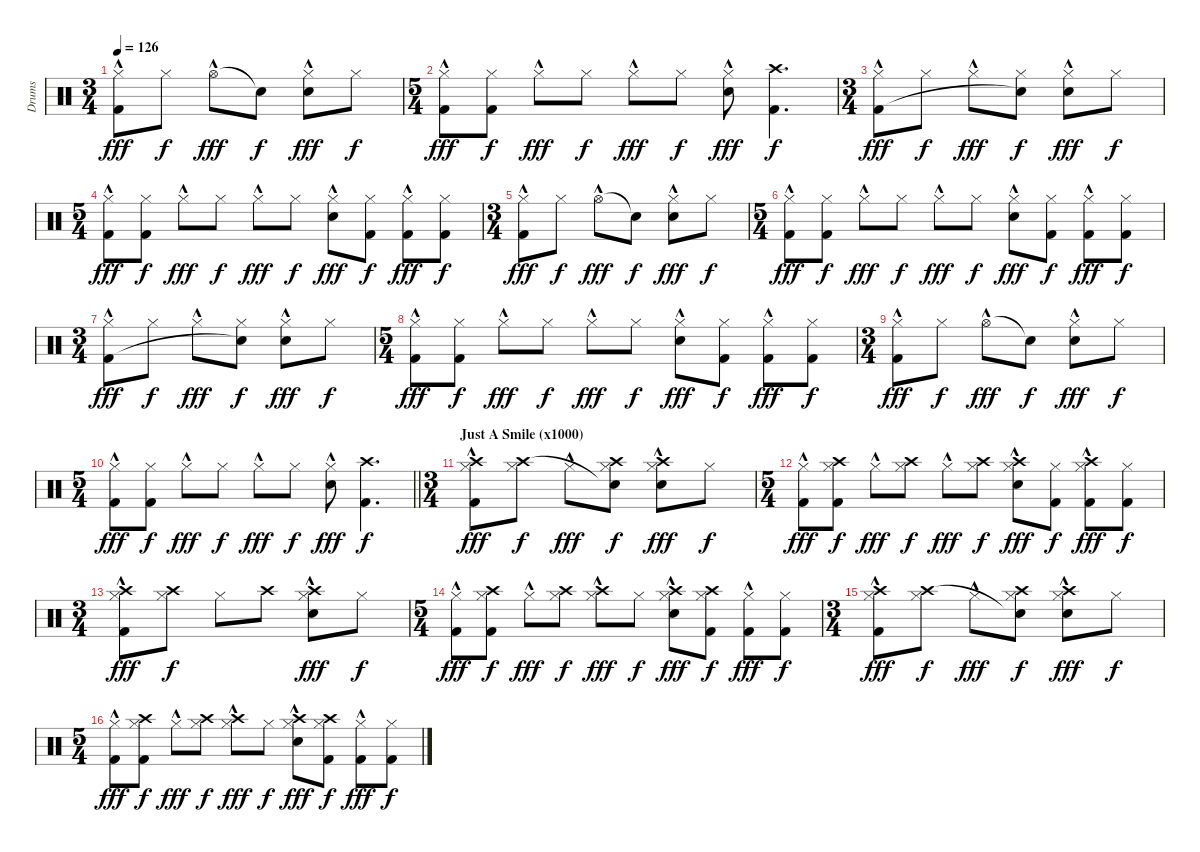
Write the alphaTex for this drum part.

\track ("Drums" "Drums") {instrument percussion}
\staff {score}
\articulation defaults
\ts (3 4)
\tempo 126
\clef neutral
\ks c
("Hi-Hat (closed)"{hac} "Kick (hit) 2").8{dy fff} "Hi-Hat (closed)".8{dy f} "Hi-Hat (open)"{hac}.8{dy fff} "Snare (hit)"{t}.8{dy f} ("Hi-Hat (closed)"{hac} "Snare (hit) 2"{hac}).8{dy fff} "Hi-Hat (closed)".8{dy f} |
\ts (5 4)
("Hi-Hat (closed)"{hac} "Kick (hit) 2").8{dy fff} ("Hi-Hat (closed)" "Kick (hit) 2").8{dy f} "Hi-Hat (closed)"{hac}.8{dy fff} "Hi-Hat (closed)".8{dy f} "Hi-Hat (closed)"{hac}.8{dy fff} "Hi-Hat (closed)".8{dy f} ("Hi-Hat (closed)"{hac} "Snare (hit) 2"{hac}).8{dy fff} ("Crash high (hit)" "Kick (hit) 2").4{d dy f} |
\ts (3 4)
("Hi-Hat (closed)"{hac} "Kick (hit) 2").8{dy fff} "Hi-Hat (closed)".8{dy f} "Hi-Hat (closed)"{hac}.8{dy fff} ("Hi-Hat (closed)" "Snare (hit)"{t}).8{dy f} ("Hi-Hat (closed)"{hac} "Snare (hit) 2"{hac}).8{dy fff} "Hi-Hat (closed)".8{dy f} |
\ts (5 4)
("Hi-Hat (closed)"{hac} "Kick (hit) 2").8{dy fff} ("Hi-Hat (closed)" "Kick (hit) 2").8{dy f} "Hi-Hat (closed)"{hac}.8{dy fff} "Hi-Hat (closed)".8{dy f} "Hi-Hat (closed)"{hac}.8{dy fff} "Hi-Hat (closed)".8{dy f} ("Hi-Hat (closed)"{hac} "Snare (hit) 2"{hac}).8{dy fff} ("Hi-Hat (closed)" "Kick (hit) 2").8{dy f} ("Hi-Hat (closed)"{hac} "Kick (hit) 2").8{dy fff} ("Hi-Hat (closed)" "Kick (hit) 2").8{dy f} |
\ts (3 4)
("Hi-Hat (closed)"{hac} "Kick (hit) 2").8{dy fff} "Hi-Hat (closed)".8{dy f} "Hi-Hat (open)"{hac}.8{dy fff} "Snare (hit)"{t}.8{dy f} ("Hi-Hat (closed)"{hac} "Snare (hit) 2"{hac}).8{dy fff} "Hi-Hat (closed)".8{dy f} |
\ts (5 4)
("Hi-Hat (closed)"{hac} "Kick (hit) 2").8{dy fff} ("Hi-Hat (closed)" "Kick (hit) 2").8{dy f} "Hi-Hat (closed)"{hac}.8{dy fff} "Hi-Hat (closed)".8{dy f} "Hi-Hat (closed)"{hac}.8{dy fff} "Hi-Hat (closed)".8{dy f} ("Hi-Hat (closed)"{hac} "Snare (hit) 2"{hac}).8{dy fff} ("Hi-Hat (closed)" "Kick (hit) 2").8{dy f} ("Hi-Hat (closed)"{hac} "Kick (hit) 2").8{dy fff} ("Hi-Hat (closed)" "Kick (hit) 2").8{dy f} |
\ts (3 4)
("Hi-Hat (closed)"{hac} "Kick (hit) 2").8{dy fff} "Hi-Hat (closed)".8{dy f} "Hi-Hat (closed)"{hac}.8{dy fff} ("Hi-Hat (closed)" "Snare (hit)"{t}).8{dy f} ("Hi-Hat (closed)"{hac} "Snare (hit) 2"{hac}).8{dy fff} "Hi-Hat (closed)".8{dy f} |
\ts (5 4)
("Hi-Hat (closed)"{hac} "Kick (hit) 2").8{dy fff} ("Hi-Hat (closed)" "Kick (hit) 2").8{dy f} "Hi-Hat (closed)"{hac}.8{dy fff} "Hi-Hat (closed)".8{dy f} "Hi-Hat (closed)"{hac}.8{dy fff} "Hi-Hat (closed)".8{dy f} ("Hi-Hat (closed)"{hac} "Snare (hit) 2"{hac}).8{dy fff} ("Hi-Hat (closed)" "Kick (hit) 2").8{dy f} ("Hi-Hat (closed)"{hac} "Kick (hit) 2").8{dy fff} ("Hi-Hat (closed)" "Kick (hit) 2").8{dy f} |
\ts (3 4)
("Hi-Hat (closed)"{hac} "Kick (hit) 2").8{dy fff} "Hi-Hat (closed)".8{dy f} "Hi-Hat (open)"{hac}.8{dy fff} "Snare (hit)"{t}.8{dy f} ("Hi-Hat (closed)"{hac} "Snare (hit) 2"{hac}).8{dy fff} "Hi-Hat (closed)".8{dy f} |
\ts (5 4)
\barLineRight lightlight
("Hi-Hat (closed)"{hac} "Kick (hit) 2").8{dy fff} ("Hi-Hat (closed)" "Kick (hit) 2").8{dy f} "Hi-Hat (closed)"{hac}.8{dy fff} "Hi-Hat (closed)".8{dy f} "Hi-Hat (closed)"{hac}.8{dy fff} "Hi-Hat (closed)".8{dy f} ("Hi-Hat (closed)"{hac} "Snare (hit) 2"{hac}).8{dy fff} ("Crash high (hit)" "Kick (hit) 2").4{d dy f} |
\ts (3 4)
\section ("" "Just A Smile (x1000)")
("Hi-Hat (closed)"{hac} "Crash high (hit)" "Kick (hit) 2").8{dy fff} ("Hi-Hat (closed)" "Crash high (hit)").8{dy f} "Hi-Hat (closed)"{hac}.8{dy fff} ("Hi-Hat (closed)" "Snare (hit)"{t} "Crash high (hit)").8{dy f} ("Hi-Hat (closed)"{hac} "Crash high (hit)" "Snare (hit) 2"{hac}).8{dy fff} "Hi-Hat (closed)".8{dy f} |
\ts (5 4)
("Hi-Hat (closed)"{hac} "Kick (hit) 2").8{dy fff} ("Hi-Hat (closed)" "Crash high (hit)" "Kick (hit) 2").8{dy f} "Hi-Hat (closed)"{hac}.8{dy fff} ("Hi-Hat (closed)" "Crash high (hit)").8{dy f} "Hi-Hat (closed)"{hac}.8{dy fff} ("Hi-Hat (closed)" "Crash high (hit)").8{dy f} ("Hi-Hat (closed)"{hac} "Crash high (hit)" "Snare (hit) 2"{hac}).8{dy fff} ("Hi-Hat (closed)" "Kick (hit) 2").8{dy f} ("Hi-Hat (closed)"{hac} "Crash high (hit)" "Kick (hit) 2").8{dy fff} ("Hi-Hat (closed)" "Kick (hit) 2").8{dy f} |
\ts (3 4)
("Hi-Hat (closed)"{hac} "Crash high (hit)" "Kick (hit) 2").8{dy fff} ("Hi-Hat (closed)" "Crash high (hit)").8{dy f} "Hi-Hat (closed)".8 "Crash high (hit)".8 ("Hi-Hat (closed)"{hac} "Crash high (hit)" "Snare (hit) 2"{hac}).8{dy fff} "Hi-Hat (closed)".8{dy f} |
\ts (5 4)
("Hi-Hat (closed)"{hac} "Kick (hit) 2").8{dy fff} ("Hi-Hat (closed)" "Crash high (hit)" "Kick (hit) 2").8{dy f} "Hi-Hat (closed)"{hac}.8{dy fff} ("Hi-Hat (closed)" "Crash high (hit)").8{dy f} ("Hi-Hat (closed)"{hac} "Crash high (hit)").8{dy fff} "Hi-Hat (closed)".8{dy f} ("Hi-Hat (closed)"{hac} "Crash high (hit)" "Snare (hit) 2"{hac}).8{dy fff} ("Hi-Hat (closed)" "Crash high (hit)" "Kick (hit) 2").8{dy f} ("Hi-Hat (closed)"{hac} "Kick (hit) 2").8{dy fff} ("Hi-Hat (closed)" "Kick (hit) 2").8{dy f} |
\ts (3 4)
("Hi-Hat (closed)"{hac} "Crash high (hit)" "Kick (hit) 2").8{dy fff} ("Hi-Hat (closed)" "Crash high (hit)").8{dy f} "Hi-Hat (closed)"{hac}.8{dy fff} ("Hi-Hat (closed)" "Snare (hit)"{t} "Crash high (hit)").8{dy f} ("Hi-Hat (closed)"{hac} "Crash high (hit)" "Snare (hit) 2"{hac}).8{dy fff} "Hi-Hat (closed)".8{dy f} |
\ts (5 4)
("Hi-Hat (closed)"{hac} "Kick (hit) 2").8{dy fff} ("Hi-Hat (closed)" "Crash high (hit)" "Kick (hit) 2").8{dy f} "Hi-Hat (closed)"{hac}.8{dy fff} ("Hi-Hat (closed)" "Crash high (hit)").8{dy f} ("Hi-Hat (closed)"{hac} "Crash high (hit)").8{dy fff} "Hi-Hat (closed)".8{dy f} ("Hi-Hat (closed)"{hac} "Crash high (hit)" "Snare (hit) 2"{hac}).8{dy fff} ("Hi-Hat (closed)" "Crash high (hit)" "Kick (hit) 2").8{dy f} ("Hi-Hat (closed)"{hac} "Kick (hit) 2").8{dy fff} ("Hi-Hat (closed)" "Kick (hit) 2").8{dy f}
